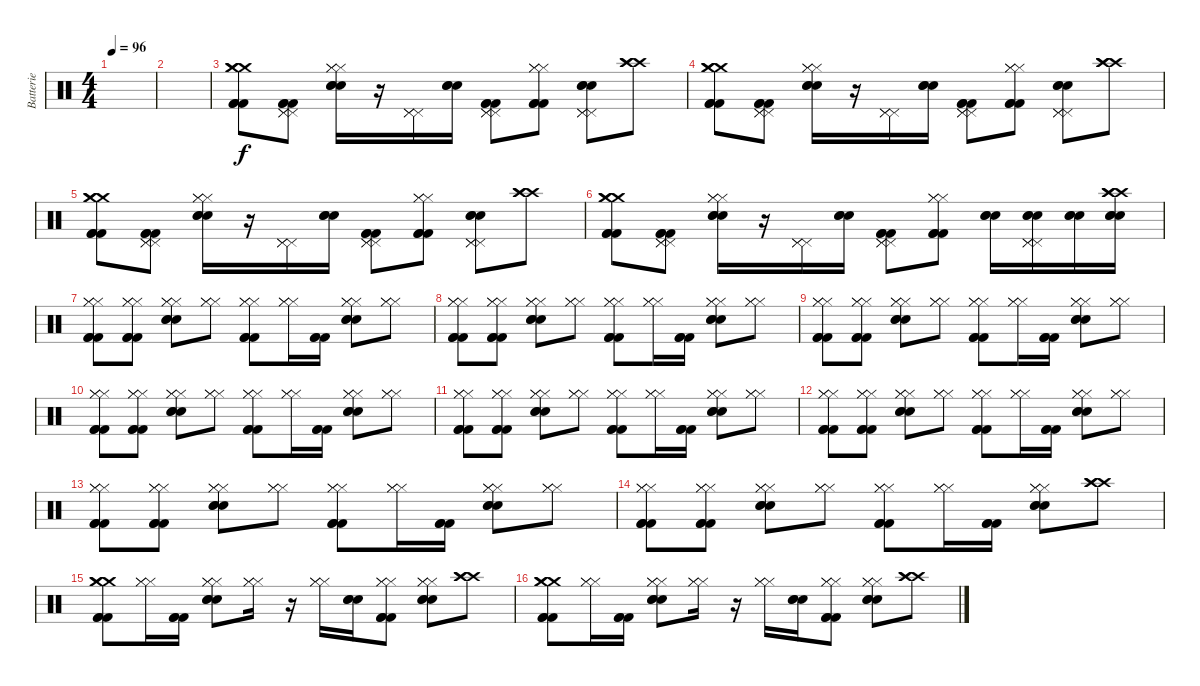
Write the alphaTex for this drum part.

\track ("Batterie" "Batterie") {instrument percussion}
\staff {score}
\articulation defaults
\ts (4 4)
\tempo 96
\clef neutral
\ks c
|
|
("Crash medium (hit)" "Crash medium (hit)" "Crash medium (hit)" "Kick (hit) 2" "Kick (hit) 2" "Kick (hit) 2").8 ("Pedal Hi-Hat (hit)" "Pedal Hi-Hat (hit)" "Pedal Hi-Hat (hit)" "Kick (hit) 2" "Kick (hit) 2" "Kick (hit) 2").8 ("Hi-Hat (closed)" "Hi-Hat (closed)" "Hi-Hat (closed)" "Electric Snare (hit)" "Electric Snare (hit)" "Electric Snare (hit)").16 r.16 ("Pedal Hi-Hat (hit)" "Pedal Hi-Hat (hit)" "Pedal Hi-Hat (hit)").16 ("Electric Snare (hit)" "Electric Snare (hit)" "Electric Snare (hit)").16 ("Pedal Hi-Hat (hit)" "Pedal Hi-Hat (hit)" "Pedal Hi-Hat (hit)" "Kick (hit) 2" "Kick (hit) 2" "Kick (hit) 2").8 ("Hi-Hat (closed)" "Hi-Hat (closed)" "Hi-Hat (closed)" "Kick (hit) 2" "Kick (hit) 2" "Kick (hit) 2").8 ("Pedal Hi-Hat (hit)" "Pedal Hi-Hat (hit)" "Pedal Hi-Hat (hit)" "Electric Snare (hit)" "Electric Snare (hit)" "Electric Snare (hit)").8 ("Crash high (hit)" "Crash high (hit)" "Crash high (hit)").8 |
("Crash medium (hit)" "Crash medium (hit)" "Crash medium (hit)" "Kick (hit) 2" "Kick (hit) 2" "Kick (hit) 2").8 ("Pedal Hi-Hat (hit)" "Pedal Hi-Hat (hit)" "Pedal Hi-Hat (hit)" "Kick (hit) 2" "Kick (hit) 2" "Kick (hit) 2").8 ("Hi-Hat (closed)" "Hi-Hat (closed)" "Hi-Hat (closed)" "Electric Snare (hit)" "Electric Snare (hit)" "Electric Snare (hit)").16 r.16 ("Pedal Hi-Hat (hit)" "Pedal Hi-Hat (hit)" "Pedal Hi-Hat (hit)").16 ("Electric Snare (hit)" "Electric Snare (hit)" "Electric Snare (hit)").16 ("Pedal Hi-Hat (hit)" "Pedal Hi-Hat (hit)" "Pedal Hi-Hat (hit)" "Kick (hit) 2" "Kick (hit) 2" "Kick (hit) 2").8 ("Hi-Hat (closed)" "Hi-Hat (closed)" "Hi-Hat (closed)" "Kick (hit) 2" "Kick (hit) 2" "Kick (hit) 2").8 ("Pedal Hi-Hat (hit)" "Pedal Hi-Hat (hit)" "Pedal Hi-Hat (hit)" "Electric Snare (hit)" "Electric Snare (hit)" "Electric Snare (hit)").8 ("Crash high (hit)" "Crash high (hit)" "Crash high (hit)").8 |
("Crash medium (hit)" "Crash medium (hit)" "Crash medium (hit)" "Kick (hit) 2" "Kick (hit) 2" "Kick (hit) 2").8 ("Pedal Hi-Hat (hit)" "Pedal Hi-Hat (hit)" "Pedal Hi-Hat (hit)" "Kick (hit) 2" "Kick (hit) 2" "Kick (hit) 2").8 ("Hi-Hat (closed)" "Hi-Hat (closed)" "Hi-Hat (closed)" "Electric Snare (hit)" "Electric Snare (hit)" "Electric Snare (hit)").16 r.16 ("Pedal Hi-Hat (hit)" "Pedal Hi-Hat (hit)" "Pedal Hi-Hat (hit)").16 ("Electric Snare (hit)" "Electric Snare (hit)" "Electric Snare (hit)").16 ("Pedal Hi-Hat (hit)" "Pedal Hi-Hat (hit)" "Pedal Hi-Hat (hit)" "Kick (hit) 2" "Kick (hit) 2" "Kick (hit) 2").8 ("Hi-Hat (closed)" "Hi-Hat (closed)" "Hi-Hat (closed)" "Kick (hit) 2" "Kick (hit) 2" "Kick (hit) 2").8 ("Pedal Hi-Hat (hit)" "Pedal Hi-Hat (hit)" "Pedal Hi-Hat (hit)" "Electric Snare (hit)" "Electric Snare (hit)" "Electric Snare (hit)").8 ("Crash high (hit)" "Crash high (hit)" "Crash high (hit)").8 |
("Crash medium (hit)" "Crash medium (hit)" "Crash medium (hit)" "Kick (hit) 2" "Kick (hit) 2" "Kick (hit) 2").8 ("Pedal Hi-Hat (hit)" "Pedal Hi-Hat (hit)" "Pedal Hi-Hat (hit)" "Kick (hit) 2" "Kick (hit) 2" "Kick (hit) 2").8 ("Hi-Hat (closed)" "Hi-Hat (closed)" "Hi-Hat (closed)" "Electric Snare (hit)" "Electric Snare (hit)" "Electric Snare (hit)").16 r.16 ("Pedal Hi-Hat (hit)" "Pedal Hi-Hat (hit)" "Pedal Hi-Hat (hit)").16 ("Electric Snare (hit)" "Electric Snare (hit)" "Electric Snare (hit)").16 ("Pedal Hi-Hat (hit)" "Pedal Hi-Hat (hit)" "Pedal Hi-Hat (hit)" "Kick (hit) 2" "Kick (hit) 2" "Kick (hit) 2").8 ("Hi-Hat (closed)" "Hi-Hat (closed)" "Hi-Hat (closed)" "Kick (hit) 2" "Kick (hit) 2" "Kick (hit) 2").8 ("Electric Snare (hit)" "Electric Snare (hit)" "Electric Snare (hit)").16 ("Pedal Hi-Hat (hit)" "Pedal Hi-Hat (hit)" "Pedal Hi-Hat (hit)" "Electric Snare (hit)" "Electric Snare (hit)" "Electric Snare (hit)").16 ("Electric Snare (hit)" "Electric Snare (hit)" "Electric Snare (hit)").16 ("Crash high (hit)" "Crash high (hit)" "Crash high (hit)" "Electric Snare (hit)" "Electric Snare (hit)" "Electric Snare (hit)").16 |
("Hi-Hat (closed)" "Hi-Hat (closed)" "Hi-Hat (closed)" "Kick (hit) 2" "Kick (hit) 2" "Kick (hit) 2").8 ("Hi-Hat (closed)" "Hi-Hat (closed)" "Hi-Hat (closed)" "Kick (hit) 2" "Kick (hit) 2" "Kick (hit) 2").8 ("Hi-Hat (closed)" "Hi-Hat (closed)" "Hi-Hat (closed)" "Electric Snare (hit)" "Electric Snare (hit)" "Electric Snare (hit)").8 ("Hi-Hat (closed)" "Hi-Hat (closed)" "Hi-Hat (closed)").8 ("Hi-Hat (closed)" "Hi-Hat (closed)" "Hi-Hat (closed)" "Kick (hit) 2" "Kick (hit) 2" "Kick (hit) 2").8 ("Hi-Hat (closed)" "Hi-Hat (closed)" "Hi-Hat (closed)").16 ("Kick (hit) 2" "Kick (hit) 2" "Kick (hit) 2").16 ("Hi-Hat (closed)" "Hi-Hat (closed)" "Hi-Hat (closed)" "Electric Snare (hit)" "Electric Snare (hit)" "Electric Snare (hit)").8 ("Hi-Hat (closed)" "Hi-Hat (closed)" "Hi-Hat (closed)").8 |
("Hi-Hat (closed)" "Hi-Hat (closed)" "Hi-Hat (closed)" "Kick (hit) 2" "Kick (hit) 2" "Kick (hit) 2").8 ("Hi-Hat (closed)" "Hi-Hat (closed)" "Hi-Hat (closed)" "Kick (hit) 2" "Kick (hit) 2" "Kick (hit) 2").8 ("Hi-Hat (closed)" "Hi-Hat (closed)" "Hi-Hat (closed)" "Electric Snare (hit)" "Electric Snare (hit)" "Electric Snare (hit)").8 ("Hi-Hat (closed)" "Hi-Hat (closed)" "Hi-Hat (closed)").8 ("Hi-Hat (closed)" "Hi-Hat (closed)" "Hi-Hat (closed)" "Kick (hit) 2" "Kick (hit) 2" "Kick (hit) 2").8 ("Hi-Hat (closed)" "Hi-Hat (closed)" "Hi-Hat (closed)").16 ("Kick (hit) 2" "Kick (hit) 2" "Kick (hit) 2").16 ("Hi-Hat (closed)" "Hi-Hat (closed)" "Hi-Hat (closed)" "Electric Snare (hit)" "Electric Snare (hit)" "Electric Snare (hit)").8 ("Hi-Hat (closed)" "Hi-Hat (closed)" "Hi-Hat (closed)").8 |
("Hi-Hat (closed)" "Hi-Hat (closed)" "Hi-Hat (closed)" "Kick (hit) 2" "Kick (hit) 2" "Kick (hit) 2").8 ("Hi-Hat (closed)" "Hi-Hat (closed)" "Hi-Hat (closed)" "Kick (hit) 2" "Kick (hit) 2" "Kick (hit) 2").8 ("Hi-Hat (closed)" "Hi-Hat (closed)" "Hi-Hat (closed)" "Electric Snare (hit)" "Electric Snare (hit)" "Electric Snare (hit)").8 ("Hi-Hat (closed)" "Hi-Hat (closed)" "Hi-Hat (closed)").8 ("Hi-Hat (closed)" "Hi-Hat (closed)" "Hi-Hat (closed)" "Kick (hit) 2" "Kick (hit) 2" "Kick (hit) 2").8 ("Hi-Hat (closed)" "Hi-Hat (closed)" "Hi-Hat (closed)").16 ("Kick (hit) 2" "Kick (hit) 2" "Kick (hit) 2").16 ("Hi-Hat (closed)" "Hi-Hat (closed)" "Hi-Hat (closed)" "Electric Snare (hit)" "Electric Snare (hit)" "Electric Snare (hit)").8 ("Hi-Hat (closed)" "Hi-Hat (closed)" "Hi-Hat (closed)").8 |
("Hi-Hat (closed)" "Hi-Hat (closed)" "Hi-Hat (closed)" "Kick (hit) 2" "Kick (hit) 2" "Kick (hit) 2").8 ("Hi-Hat (closed)" "Hi-Hat (closed)" "Hi-Hat (closed)" "Kick (hit) 2" "Kick (hit) 2" "Kick (hit) 2").8 ("Hi-Hat (closed)" "Hi-Hat (closed)" "Hi-Hat (closed)" "Electric Snare (hit)" "Electric Snare (hit)" "Electric Snare (hit)").8 ("Hi-Hat (closed)" "Hi-Hat (closed)" "Hi-Hat (closed)").8 ("Hi-Hat (closed)" "Hi-Hat (closed)" "Hi-Hat (closed)" "Kick (hit) 2" "Kick (hit) 2" "Kick (hit) 2").8 ("Hi-Hat (closed)" "Hi-Hat (closed)" "Hi-Hat (closed)").16 ("Kick (hit) 2" "Kick (hit) 2" "Kick (hit) 2").16 ("Hi-Hat (closed)" "Hi-Hat (closed)" "Hi-Hat (closed)" "Electric Snare (hit)" "Electric Snare (hit)" "Electric Snare (hit)").8 ("Hi-Hat (closed)" "Hi-Hat (closed)" "Hi-Hat (closed)").8 |
("Hi-Hat (closed)" "Hi-Hat (closed)" "Hi-Hat (closed)" "Kick (hit) 2" "Kick (hit) 2" "Kick (hit) 2").8 ("Hi-Hat (closed)" "Hi-Hat (closed)" "Hi-Hat (closed)" "Kick (hit) 2" "Kick (hit) 2" "Kick (hit) 2").8 ("Hi-Hat (closed)" "Hi-Hat (closed)" "Hi-Hat (closed)" "Electric Snare (hit)" "Electric Snare (hit)" "Electric Snare (hit)").8 ("Hi-Hat (closed)" "Hi-Hat (closed)" "Hi-Hat (closed)").8 ("Hi-Hat (closed)" "Hi-Hat (closed)" "Hi-Hat (closed)" "Kick (hit) 2" "Kick (hit) 2" "Kick (hit) 2").8 ("Hi-Hat (closed)" "Hi-Hat (closed)" "Hi-Hat (closed)").16 ("Kick (hit) 2" "Kick (hit) 2" "Kick (hit) 2").16 ("Hi-Hat (closed)" "Hi-Hat (closed)" "Hi-Hat (closed)" "Electric Snare (hit)" "Electric Snare (hit)" "Electric Snare (hit)").8 ("Hi-Hat (closed)" "Hi-Hat (closed)" "Hi-Hat (closed)").8 |
("Hi-Hat (closed)" "Hi-Hat (closed)" "Hi-Hat (closed)" "Kick (hit) 2" "Kick (hit) 2" "Kick (hit) 2").8 ("Hi-Hat (closed)" "Hi-Hat (closed)" "Hi-Hat (closed)" "Kick (hit) 2" "Kick (hit) 2" "Kick (hit) 2").8 ("Hi-Hat (closed)" "Hi-Hat (closed)" "Hi-Hat (closed)" "Electric Snare (hit)" "Electric Snare (hit)" "Electric Snare (hit)").8 ("Hi-Hat (closed)" "Hi-Hat (closed)" "Hi-Hat (closed)").8 ("Hi-Hat (closed)" "Hi-Hat (closed)" "Hi-Hat (closed)" "Kick (hit) 2" "Kick (hit) 2" "Kick (hit) 2").8 ("Hi-Hat (closed)" "Hi-Hat (closed)" "Hi-Hat (closed)").16 ("Kick (hit) 2" "Kick (hit) 2" "Kick (hit) 2").16 ("Hi-Hat (closed)" "Hi-Hat (closed)" "Hi-Hat (closed)" "Electric Snare (hit)" "Electric Snare (hit)" "Electric Snare (hit)").8 ("Hi-Hat (closed)" "Hi-Hat (closed)" "Hi-Hat (closed)").8 |
("Hi-Hat (closed)" "Hi-Hat (closed)" "Hi-Hat (closed)" "Kick (hit) 2" "Kick (hit) 2" "Kick (hit) 2").8 ("Hi-Hat (closed)" "Hi-Hat (closed)" "Hi-Hat (closed)" "Kick (hit) 2" "Kick (hit) 2" "Kick (hit) 2").8 ("Hi-Hat (closed)" "Hi-Hat (closed)" "Hi-Hat (closed)" "Electric Snare (hit)" "Electric Snare (hit)" "Electric Snare (hit)").8 ("Hi-Hat (closed)" "Hi-Hat (closed)" "Hi-Hat (closed)").8 ("Hi-Hat (closed)" "Hi-Hat (closed)" "Hi-Hat (closed)" "Kick (hit) 2" "Kick (hit) 2" "Kick (hit) 2").8 ("Hi-Hat (closed)" "Hi-Hat (closed)" "Hi-Hat (closed)").16 ("Kick (hit) 2" "Kick (hit) 2" "Kick (hit) 2").16 ("Hi-Hat (closed)" "Hi-Hat (closed)" "Hi-Hat (closed)" "Electric Snare (hit)" "Electric Snare (hit)" "Electric Snare (hit)").8 ("Hi-Hat (closed)" "Hi-Hat (closed)" "Hi-Hat (closed)").8 |
("Hi-Hat (closed)" "Hi-Hat (closed)" "Hi-Hat (closed)" "Kick (hit) 2" "Kick (hit) 2" "Kick (hit) 2").8 ("Hi-Hat (closed)" "Hi-Hat (closed)" "Hi-Hat (closed)" "Kick (hit) 2" "Kick (hit) 2" "Kick (hit) 2").8 ("Hi-Hat (closed)" "Hi-Hat (closed)" "Hi-Hat (closed)" "Electric Snare (hit)" "Electric Snare (hit)" "Electric Snare (hit)").8 ("Hi-Hat (closed)" "Hi-Hat (closed)" "Hi-Hat (closed)").8 ("Hi-Hat (closed)" "Hi-Hat (closed)" "Hi-Hat (closed)" "Kick (hit) 2" "Kick (hit) 2" "Kick (hit) 2").8 ("Hi-Hat (closed)" "Hi-Hat (closed)" "Hi-Hat (closed)").16 ("Kick (hit) 2" "Kick (hit) 2" "Kick (hit) 2").16 ("Hi-Hat (closed)" "Hi-Hat (closed)" "Hi-Hat (closed)" "Electric Snare (hit)" "Electric Snare (hit)" "Electric Snare (hit)").8 ("Crash high (hit)" "Crash high (hit)" "Crash high (hit)").8 |
("Crash medium (hit)" "Crash medium (hit)" "Crash medium (hit)" "Kick (hit) 2" "Kick (hit) 2" "Kick (hit) 2").8 ("Hi-Hat (closed)" "Hi-Hat (closed)" "Hi-Hat (closed)").16 ("Kick (hit) 2" "Kick (hit) 2" "Kick (hit) 2").16 ("Hi-Hat (closed)" "Hi-Hat (closed)" "Hi-Hat (closed)" "Electric Snare (hit)" "Electric Snare (hit)" "Electric Snare (hit)").8 ("Hi-Hat (closed)" "Hi-Hat (closed)" "Hi-Hat (closed)").16 r.16 ("Hi-Hat (closed)" "Hi-Hat (closed)" "Hi-Hat (closed)").16 ("Electric Snare (hit)" "Electric Snare (hit)" "Electric Snare (hit)").16 ("Hi-Hat (closed)" "Hi-Hat (closed)" "Hi-Hat (closed)" "Kick (hit) 2" "Kick (hit) 2" "Kick (hit) 2").8 ("Hi-Hat (closed)" "Hi-Hat (closed)" "Hi-Hat (closed)" "Electric Snare (hit)" "Electric Snare (hit)" "Electric Snare (hit)").8 ("Crash high (hit)" "Crash high (hit)" "Crash high (hit)").8 |
("Crash medium (hit)" "Crash medium (hit)" "Crash medium (hit)" "Kick (hit) 2" "Kick (hit) 2" "Kick (hit) 2").8 ("Hi-Hat (closed)" "Hi-Hat (closed)" "Hi-Hat (closed)").16 ("Kick (hit) 2" "Kick (hit) 2" "Kick (hit) 2").16 ("Hi-Hat (closed)" "Hi-Hat (closed)" "Hi-Hat (closed)" "Electric Snare (hit)" "Electric Snare (hit)" "Electric Snare (hit)").8 ("Hi-Hat (closed)" "Hi-Hat (closed)" "Hi-Hat (closed)").16 r.16 ("Hi-Hat (closed)" "Hi-Hat (closed)" "Hi-Hat (closed)").16 ("Electric Snare (hit)" "Electric Snare (hit)" "Electric Snare (hit)").16 ("Hi-Hat (closed)" "Hi-Hat (closed)" "Hi-Hat (closed)" "Kick (hit) 2" "Kick (hit) 2" "Kick (hit) 2").8 ("Hi-Hat (closed)" "Hi-Hat (closed)" "Hi-Hat (closed)" "Electric Snare (hit)" "Electric Snare (hit)" "Electric Snare (hit)").8 ("Crash high (hit)" "Crash high (hit)" "Crash high (hit)").8
